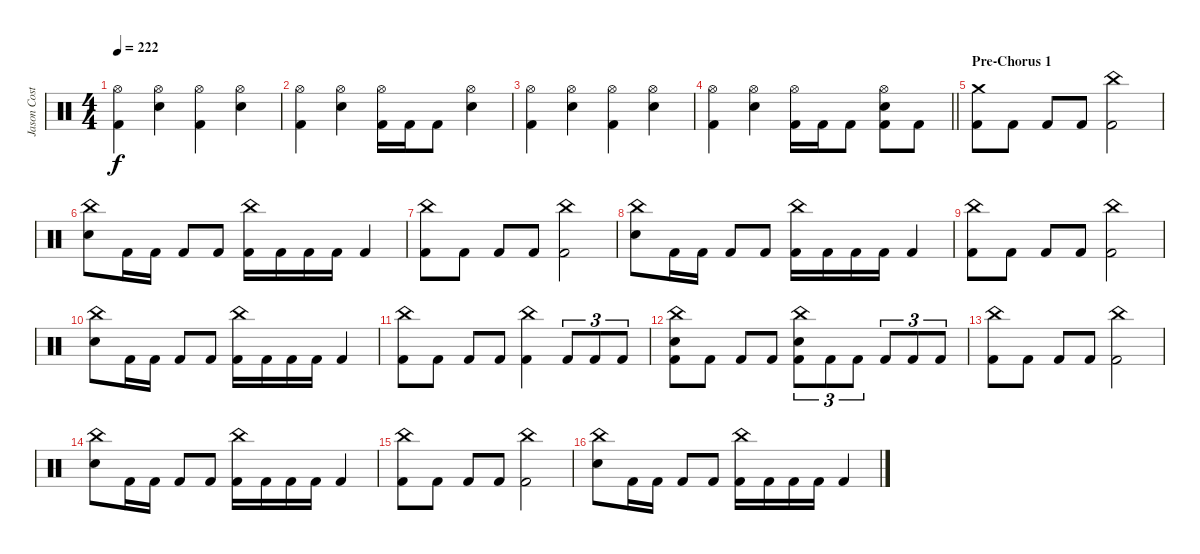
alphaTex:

\track ("Jason Costa" "Jason Cost") {instrument percussion}
\staff {score}
\articulation defaults
\ts (4 4)
\tempo 222
\clef neutral
\ks c
("Hi-Hat (open)" "Kick (hit) 2").4{dy f} ("Hi-Hat (open)" "Electric Snare (hit)").4 ("Hi-Hat (open)" "Kick (hit) 2").4 ("Hi-Hat (open)" "Electric Snare (hit)").4 |
("Hi-Hat (open)" "Kick (hit) 2").4 ("Hi-Hat (open)" "Electric Snare (hit)").4 ("Hi-Hat (open)" "Kick (hit) 2").16 "Kick (hit) 2".16 "Kick (hit) 2".8 ("Hi-Hat (open)" "Electric Snare (hit)").4 |
("Hi-Hat (open)" "Kick (hit) 2").4 ("Hi-Hat (open)" "Electric Snare (hit)").4 ("Hi-Hat (open)" "Kick (hit) 2").4 ("Hi-Hat (open)" "Electric Snare (hit)").4 |
\barLineRight lightlight
("Hi-Hat (open)" "Kick (hit) 2").4 ("Hi-Hat (open)" "Electric Snare (hit)").4 ("Hi-Hat (open)" "Kick (hit) 2").16 "Kick (hit) 2".16 "Kick (hit) 2".8 ("Hi-Hat (open)" "Electric Snare (hit)" "Kick (hit) 2").8 "Kick (hit) 2".8 |
\section ("" "Pre-Chorus 1")
("Crash medium (hit)" "Kick (hit) 2").8 "Kick (hit) 2".8 "Kick (hit) 2".8 "Kick (hit) 2".8 ("China (hit)" "Kick (hit) 2").2 |
("China (hit)" "Electric Snare (hit)").8 "Kick (hit) 2".16 "Kick (hit) 2".16 "Kick (hit) 2".8 "Kick (hit) 2".8 ("China (hit)" "Kick (hit) 2").16 "Kick (hit) 2".16 "Kick (hit) 2".16 "Kick (hit) 2".16 "Kick (hit) 2".4 |
("China (hit)" "Kick (hit) 2").8 "Kick (hit) 2".8 "Kick (hit) 2".8 "Kick (hit) 2".8 ("China (hit)" "Kick (hit) 2").2 |
("China (hit)" "Electric Snare (hit)").8 "Kick (hit) 2".16 "Kick (hit) 2".16 "Kick (hit) 2".8 "Kick (hit) 2".8 ("China (hit)" "Kick (hit) 2").16 "Kick (hit) 2".16 "Kick (hit) 2".16 "Kick (hit) 2".16 "Kick (hit) 2".4 |
("China (hit)" "Kick (hit) 2").8 "Kick (hit) 2".8 "Kick (hit) 2".8 "Kick (hit) 2".8 ("China (hit)" "Kick (hit) 2").2 |
("China (hit)" "Electric Snare (hit)").8 "Kick (hit) 2".16 "Kick (hit) 2".16 "Kick (hit) 2".8 "Kick (hit) 2".8 ("China (hit)" "Kick (hit) 2").16 "Kick (hit) 2".16 "Kick (hit) 2".16 "Kick (hit) 2".16 "Kick (hit) 2".4 |
("China (hit)" "Kick (hit) 2").8 "Kick (hit) 2".8 "Kick (hit) 2".8 "Kick (hit) 2".8 ("China (hit)" "Kick (hit) 2").4 "Kick (hit) 2".8{tu (3 2)} "Kick (hit) 2".8{tu (3 2)} "Kick (hit) 2".8{tu (3 2)} |
("China (hit)" "Electric Snare (hit)" "Kick (hit) 2").8 "Kick (hit) 2".8 "Kick (hit) 2".8 "Kick (hit) 2".8 ("China (hit)" "Electric Snare (hit)" "Kick (hit) 2").8{tu (3 2)} "Kick (hit) 2".8{tu (3 2)} "Kick (hit) 2".8{tu (3 2)} "Kick (hit) 2".8{tu (3 2)} "Kick (hit) 2".8{tu (3 2)} "Kick (hit) 2".8{tu (3 2)} |
("China (hit)" "Kick (hit) 2").8 "Kick (hit) 2".8 "Kick (hit) 2".8 "Kick (hit) 2".8 ("China (hit)" "Kick (hit) 2").2 |
("China (hit)" "Electric Snare (hit)").8 "Kick (hit) 2".16 "Kick (hit) 2".16 "Kick (hit) 2".8 "Kick (hit) 2".8 ("China (hit)" "Kick (hit) 2").16 "Kick (hit) 2".16 "Kick (hit) 2".16 "Kick (hit) 2".16 "Kick (hit) 2".4 |
("China (hit)" "Kick (hit) 2").8 "Kick (hit) 2".8 "Kick (hit) 2".8 "Kick (hit) 2".8 ("China (hit)" "Kick (hit) 2").2 |
("China (hit)" "Electric Snare (hit)").8 "Kick (hit) 2".16 "Kick (hit) 2".16 "Kick (hit) 2".8 "Kick (hit) 2".8 ("China (hit)" "Kick (hit) 2").16 "Kick (hit) 2".16 "Kick (hit) 2".16 "Kick (hit) 2".16 "Kick (hit) 2".4
